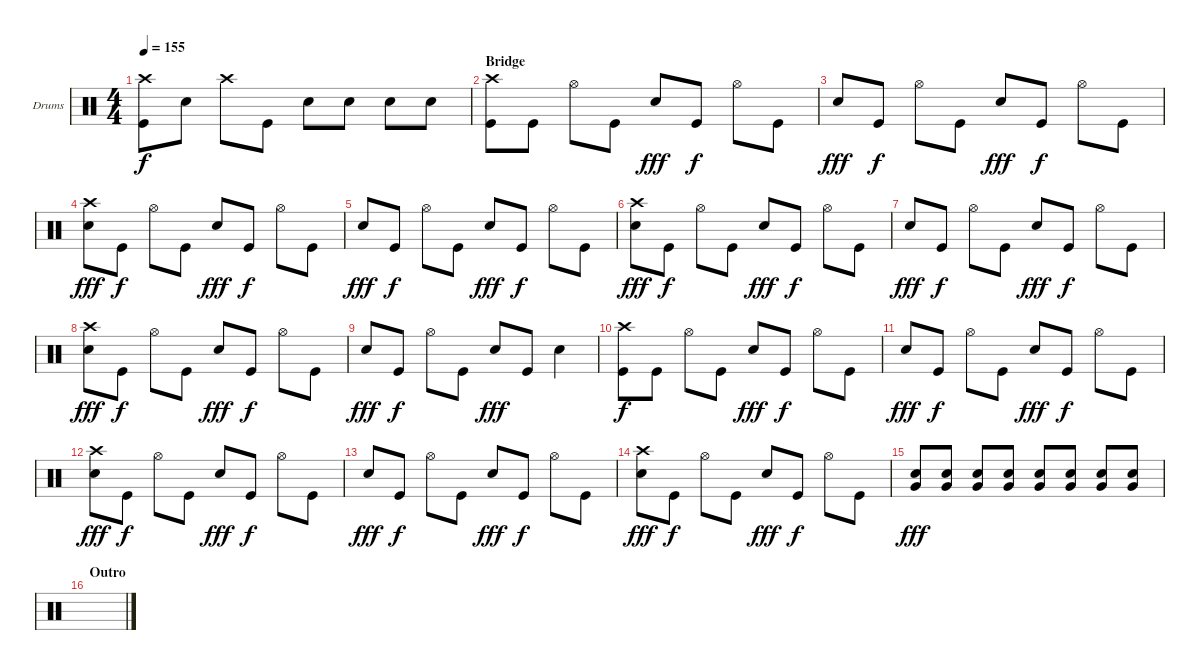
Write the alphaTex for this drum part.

\defaultSystemsLayout 4
\bracketExtendMode groupsimilarinstruments
\firstSystemTrackNameOrientation horizontal
\otherSystemsTrackNameOrientation horizontal
\track ("Ben Tatcher" "Drums") {instrument percussion}
\staff {score}
\articulation defaults
\ts (4 4)
\tempo 155
\clef neutral
\ks c
("Kick (hit)" "Crash high (hit)").8{dy f} "Snare (hit) 2".8 "Crash high (hit)".8 "Kick (hit)".8 "Snare (hit) 2".8 "Snare (hit) 2".8 "Snare (hit) 2".8 "Snare (hit) 2".8 |
\section ("" "Bridge")
("Kick (hit)" "Crash high (hit)").8 "Kick (hit)".8 "Hi-Hat (open)".8 "Kick (hit)".8 "Snare (hit) 2".8{dy fff} "Kick (hit)".8{dy f} "Hi-Hat (open)".8 "Kick (hit)".8 |
"Snare (hit) 2".8{dy fff} "Kick (hit)".8{dy f} "Hi-Hat (open)".8 "Kick (hit)".8 "Snare (hit) 2".8{dy fff} "Kick (hit)".8{dy f} "Hi-Hat (open)".8 "Kick (hit)".8 |
("Snare (hit) 2" "Crash high (hit)").8{dy fff} "Kick (hit)".8{dy f} "Hi-Hat (open)".8 "Kick (hit)".8 "Snare (hit) 2".8{dy fff} "Kick (hit)".8{dy f} "Hi-Hat (open)".8 "Kick (hit)".8 |
"Snare (hit) 2".8{dy fff} "Kick (hit)".8{dy f} "Hi-Hat (open)".8 "Kick (hit)".8 "Snare (hit) 2".8{dy fff} "Kick (hit)".8{dy f} "Hi-Hat (open)".8 "Kick (hit)".8 |
("Snare (hit) 2" "Crash high (hit)").8{dy fff} "Kick (hit)".8{dy f} "Hi-Hat (open)".8 "Kick (hit)".8 "Snare (hit) 2".8{dy fff} "Kick (hit)".8{dy f} "Hi-Hat (open)".8 "Kick (hit)".8 |
"Snare (hit) 2".8{dy fff} "Kick (hit)".8{dy f} "Hi-Hat (open)".8 "Kick (hit)".8 "Snare (hit) 2".8{dy fff} "Kick (hit)".8{dy f} "Hi-Hat (open)".8 "Kick (hit)".8 |
("Snare (hit) 2" "Crash high (hit)").8{dy fff} "Kick (hit)".8{dy f} "Hi-Hat (open)".8 "Kick (hit)".8 "Snare (hit) 2".8{dy fff} "Kick (hit)".8{dy f} "Hi-Hat (open)".8 "Kick (hit)".8 |
"Snare (hit) 2".8{dy fff} "Kick (hit)".8{dy f} "Hi-Hat (open)".8 "Kick (hit)".8 "Snare (hit) 2".8{dy fff} "Kick (hit)".8 "Snare (hit) 2".4 |
("Kick (hit)" "Crash high (hit)").8{dy f} "Kick (hit)".8 "Hi-Hat (open)".8 "Kick (hit)".8 "Snare (hit) 2".8{dy fff} "Kick (hit)".8{dy f} "Hi-Hat (open)".8 "Kick (hit)".8 |
"Snare (hit) 2".8{dy fff} "Kick (hit)".8{dy f} "Hi-Hat (open)".8 "Kick (hit)".8 "Snare (hit) 2".8{dy fff} "Kick (hit)".8{dy f} "Hi-Hat (open)".8 "Kick (hit)".8 |
("Snare (hit) 2" "Crash high (hit)").8{dy fff} "Kick (hit)".8{dy f} "Hi-Hat (open)".8 "Kick (hit)".8 "Snare (hit) 2".8{dy fff} "Kick (hit)".8{dy f} "Hi-Hat (open)".8 "Kick (hit)".8 |
"Snare (hit) 2".8{dy fff} "Kick (hit)".8{dy f} "Hi-Hat (open)".8 "Kick (hit)".8 "Snare (hit) 2".8{dy fff} "Kick (hit)".8{dy f} "Hi-Hat (open)".8 "Kick (hit)".8 |
("Snare (hit) 2" "Crash high (hit)").8{dy fff} "Kick (hit)".8{dy f} "Hi-Hat (open)".8 "Kick (hit)".8 "Snare (hit) 2".8{dy fff} "Kick (hit)".8{dy f} "Hi-Hat (open)".8 "Kick (hit)".8 |
("Snare (hit) 2" "Very Low Tom (hit)").8{dy fff} ("Snare (hit) 2" "Very Low Tom (hit)").8 ("Snare (hit) 2" "Very Low Tom (hit)").8 ("Snare (hit) 2" "Very Low Tom (hit)").8 ("Snare (hit) 2" "Very Low Tom (hit)").8 ("Snare (hit) 2" "Very Low Tom (hit)").8 ("Snare (hit) 2" "Very Low Tom (hit)").8 ("Snare (hit) 2" "Very Low Tom (hit)").8 |
\section ("" "Outro")
